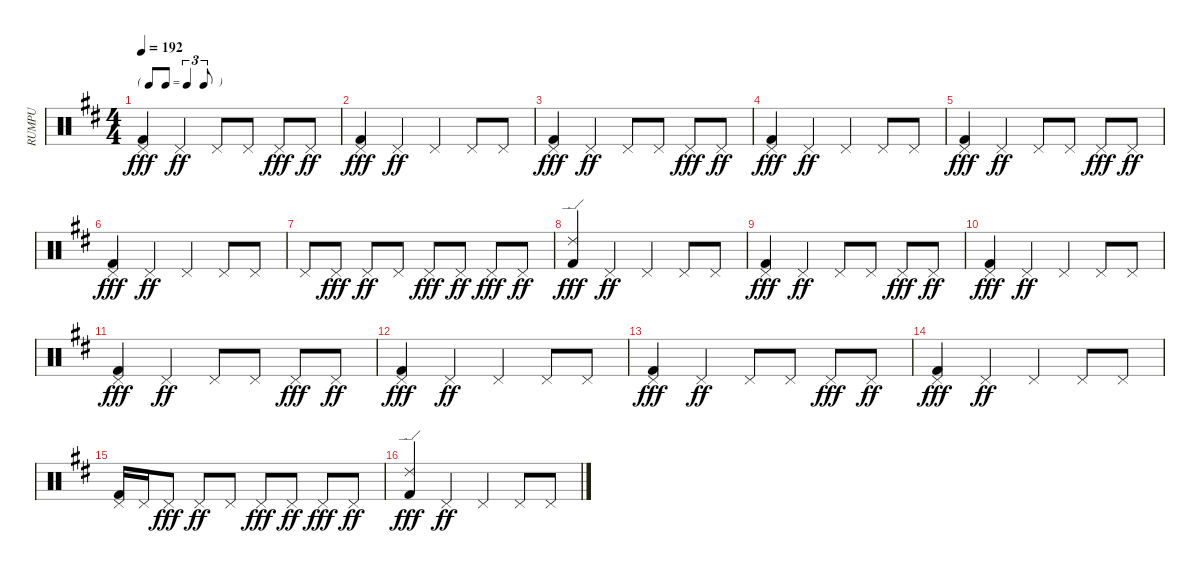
\track ("RUMPU" "RUMPU") {instrument percussion}
\staff {score}
\articulation defaults
\ts (4 4)
\tf triplet8th
\tempo 192
\clef neutral
\ks d
("Pedal Hi-Hat (hit)" "Kick (hit) 2").4{dy fff} "Pedal Hi-Hat (hit)".4{dy ff} "Pedal Hi-Hat (hit)".8 "Pedal Hi-Hat (hit)".8 "Pedal Hi-Hat (hit)".8{dy fff} "Pedal Hi-Hat (hit)".8{dy ff} |
("Pedal Hi-Hat (hit)" "Kick (hit) 2").4{dy fff} "Pedal Hi-Hat (hit)".4{dy ff} "Pedal Hi-Hat (hit)".4 "Pedal Hi-Hat (hit)".8 "Pedal Hi-Hat (hit)".8 |
("Pedal Hi-Hat (hit)" "Kick (hit) 2").4{dy fff} "Pedal Hi-Hat (hit)".4{dy ff} "Pedal Hi-Hat (hit)".8 "Pedal Hi-Hat (hit)".8 "Pedal Hi-Hat (hit)".8{dy fff} "Pedal Hi-Hat (hit)".8{dy ff} |
("Pedal Hi-Hat (hit)" "Kick (hit) 2").4{dy fff} "Pedal Hi-Hat (hit)".4{dy ff} "Pedal Hi-Hat (hit)".4 "Pedal Hi-Hat (hit)".8 "Pedal Hi-Hat (hit)".8 |
("Pedal Hi-Hat (hit)" "Kick (hit) 2").4{dy fff} "Pedal Hi-Hat (hit)".4{dy ff} "Pedal Hi-Hat (hit)".8 "Pedal Hi-Hat (hit)".8 "Pedal Hi-Hat (hit)".8{dy fff} "Pedal Hi-Hat (hit)".8{dy ff} |
("Pedal Hi-Hat (hit)" "Kick (hit) 2").4{dy fff} "Pedal Hi-Hat (hit)".4{dy ff} "Pedal Hi-Hat (hit)".4 "Pedal Hi-Hat (hit)".8 "Pedal Hi-Hat (hit)".8 |
"Pedal Hi-Hat (hit)".8 "Pedal Hi-Hat (hit)".8{dy fff} "Pedal Hi-Hat (hit)".8{dy ff} "Pedal Hi-Hat (hit)".8 "Pedal Hi-Hat (hit)".8{dy fff} "Pedal Hi-Hat (hit)".8{dy ff} "Pedal Hi-Hat (hit)".8{dy fff} "Pedal Hi-Hat (hit)".8{dy ff} |
("Ride (edge) 2" "Kick (hit) 2").4{dy fff} "Pedal Hi-Hat (hit)".4{dy ff} "Pedal Hi-Hat (hit)".4 "Pedal Hi-Hat (hit)".8 "Pedal Hi-Hat (hit)".8 |
("Pedal Hi-Hat (hit)" "Kick (hit) 2").4{dy fff} "Pedal Hi-Hat (hit)".4{dy ff} "Pedal Hi-Hat (hit)".8 "Pedal Hi-Hat (hit)".8 "Pedal Hi-Hat (hit)".8{dy fff} "Pedal Hi-Hat (hit)".8{dy ff} |
("Pedal Hi-Hat (hit)" "Kick (hit) 2").4{dy fff} "Pedal Hi-Hat (hit)".4{dy ff} "Pedal Hi-Hat (hit)".4 "Pedal Hi-Hat (hit)".8 "Pedal Hi-Hat (hit)".8 |
("Pedal Hi-Hat (hit)" "Kick (hit) 2").4{dy fff} "Pedal Hi-Hat (hit)".4{dy ff} "Pedal Hi-Hat (hit)".8 "Pedal Hi-Hat (hit)".8 "Pedal Hi-Hat (hit)".8{dy fff} "Pedal Hi-Hat (hit)".8{dy ff} |
("Pedal Hi-Hat (hit)" "Kick (hit) 2").4{dy fff} "Pedal Hi-Hat (hit)".4{dy ff} "Pedal Hi-Hat (hit)".4 "Pedal Hi-Hat (hit)".8 "Pedal Hi-Hat (hit)".8 |
("Pedal Hi-Hat (hit)" "Kick (hit) 2").4{dy fff} "Pedal Hi-Hat (hit)".4{dy ff} "Pedal Hi-Hat (hit)".8 "Pedal Hi-Hat (hit)".8 "Pedal Hi-Hat (hit)".8{dy fff} "Pedal Hi-Hat (hit)".8{dy ff} |
("Pedal Hi-Hat (hit)" "Kick (hit) 2").4{dy fff} "Pedal Hi-Hat (hit)".4{dy ff} "Pedal Hi-Hat (hit)".4 "Pedal Hi-Hat (hit)".8 "Pedal Hi-Hat (hit)".8 |
("Pedal Hi-Hat (hit)" "Kick (hit) 2").16 "Pedal Hi-Hat (hit)".16 "Pedal Hi-Hat (hit)".8{dy fff} "Pedal Hi-Hat (hit)".8{dy ff} "Pedal Hi-Hat (hit)".8 "Pedal Hi-Hat (hit)".8{dy fff} "Pedal Hi-Hat (hit)".8{dy ff} "Pedal Hi-Hat (hit)".8{dy fff} "Pedal Hi-Hat (hit)".8{dy ff} |
("Ride (edge) 2" "Kick (hit) 2").4{dy fff} "Pedal Hi-Hat (hit)".4{dy ff} "Pedal Hi-Hat (hit)".4 "Pedal Hi-Hat (hit)".8 "Pedal Hi-Hat (hit)".8
